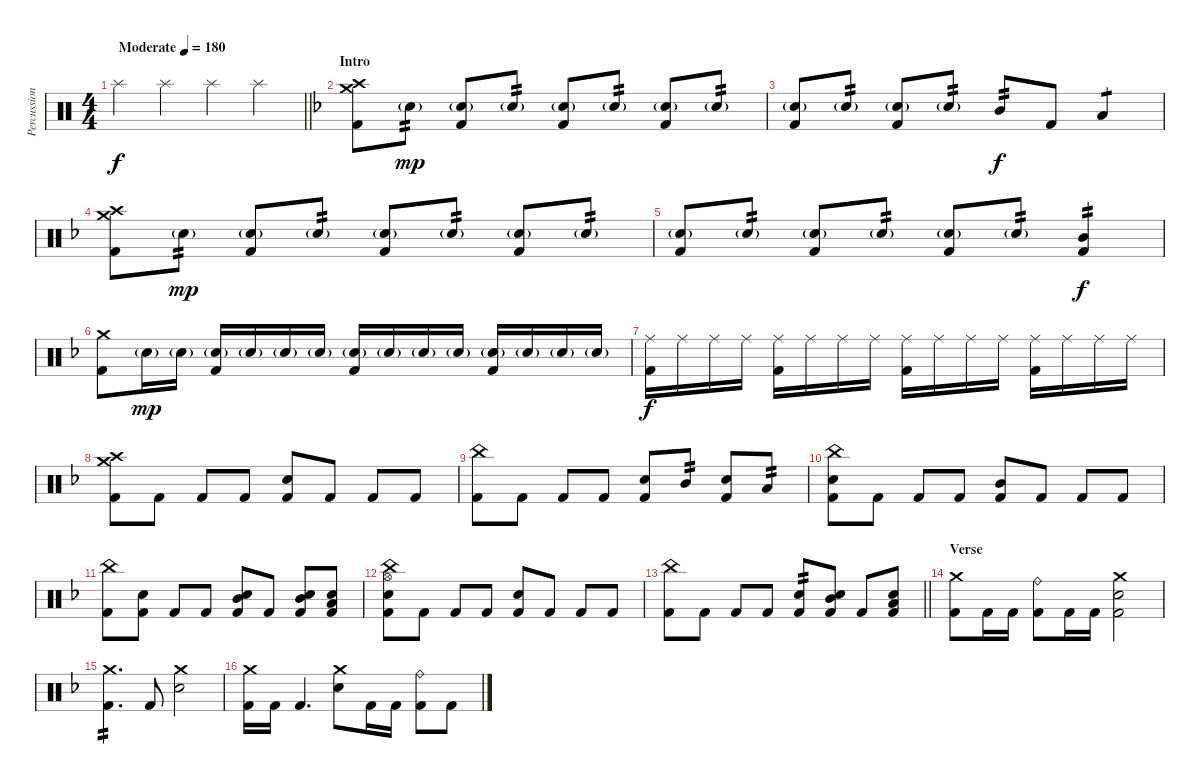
\track ("Percussion" "Percussion") {instrument percussion}
\staff {score}
\articulation defaults
\ts (4 4)
\tempo (180 "Moderate")
\clef neutral
\barLineRight lightlight
\ks c "Splash (hit)".4{dy f} "Splash (hit)".4 "Splash (hit)".4 "Splash (hit)".4
|
\section ("" "Intro")
\ks f
("Crash medium (hit)" "Crash high (hit)" "Kick (hit) 2").8 "Electric Snare (hit)"{g}.8{tp 2 dy mp} ("Electric Snare (hit)"{g} "Kick (hit) 2").8 "Electric Snare (hit)"{g}.8{tp 2} ("Electric Snare (hit)"{g} "Kick (hit) 2").8 "Electric Snare (hit)"{g}.8{tp 2} ("Electric Snare (hit)"{g} "Kick (hit) 2").8 "Electric Snare (hit)"{g}.8{tp 2} |
("Electric Snare (hit)"{g} "Kick (hit) 2").8 "Electric Snare (hit)"{g}.8{tp 2} ("Electric Snare (hit)"{g} "Kick (hit) 2").8 "Electric Snare (hit)"{g}.8{tp 2} "Mid Tom (hit)".8{tp 2 dy f} "Kick (hit) 2".8 "Low Tom (hit)".4{tp 1} |
("Crash medium (hit)" "Crash high (hit)" "Kick (hit) 2").8 "Electric Snare (hit)"{g}.8{tp 2 dy mp} ("Electric Snare (hit)"{g} "Kick (hit) 2").8 "Electric Snare (hit)"{g}.8{tp 2} ("Electric Snare (hit)"{g} "Kick (hit) 2").8 "Electric Snare (hit)"{g}.8{tp 2} ("Electric Snare (hit)"{g} "Kick (hit) 2").8 "Electric Snare (hit)"{g}.8{tp 2} |
("Electric Snare (hit)"{g} "Kick (hit) 2").8 "Electric Snare (hit)"{g}.8{tp 2} ("Electric Snare (hit)"{g} "Kick (hit) 2").8 "Electric Snare (hit)"{g}.8{tp 2} ("Electric Snare (hit)"{g} "Kick (hit) 2").8 "Electric Snare (hit)"{g}.8{tp 2} ("Mid Tom (hit)" "Kick (hit) 2").4{tp 2 dy f} |
("Crash medium (hit)" "Kick (hit) 2").8 "Electric Snare (hit)"{g}.16{dy mp} "Electric Snare (hit)"{g}.16 ("Electric Snare (hit)"{g} "Kick (hit) 2").16 "Electric Snare (hit)"{g}.16 "Electric Snare (hit)"{g}.16 "Electric Snare (hit)"{g}.16 ("Electric Snare (hit)"{g} "Kick (hit) 2").16 "Electric Snare (hit)"{g}.16 "Electric Snare (hit)"{g}.16 "Electric Snare (hit)"{g}.16 ("Electric Snare (hit)"{g} "Kick (hit) 2").16 "Electric Snare (hit)"{g}.16 "Electric Snare (hit)"{g}.16 "Electric Snare (hit)"{g}.16 |
("Ride (middle)" "Kick (hit) 2").16{dy f} "Ride (middle)".16{volume 16} "Ride (middle)".16 "Ride (middle)".16 ("Ride (middle)" "Kick (hit) 2").16 "Ride (middle)".16 "Ride (middle)".16 "Ride (middle)".16 ("Ride (middle)" "Kick (hit) 2").16 "Ride (middle)".16 "Ride (middle)".16 "Ride (middle)".16 ("Ride (middle)" "Kick (hit) 2").16 "Ride (middle)".16 "Ride (middle)".16 "Ride (middle)".16 |
("Crash medium (hit)" "Crash high (hit)" "Kick (hit) 2").8 "Kick (hit) 2".8 "Kick (hit) 2".8 "Kick (hit) 2".8 ("Electric Snare (hit)" "Kick (hit) 2").8 "Kick (hit) 2".8 "Kick (hit) 2".8 "Kick (hit) 2".8 |
("China (hit)" "Kick (hit) 2").8 "Kick (hit) 2".8 "Kick (hit) 2".8 "Kick (hit) 2".8 ("Electric Snare (hit)" "Kick (hit) 2").8 "Mid Tom (hit)".8{tp 2} ("Snare (hit)" "Kick (hit) 2").8 "Low Tom (hit)".8{tp 2} |
("China (hit)" "Electric Snare (hit)" "Kick (hit) 2").8 "Kick (hit) 2".8 "Kick (hit) 2".8 "Kick (hit) 2".8 ("Mid Tom (hit)" "Kick (hit) 2").8 "Kick (hit) 2".8 "Kick (hit) 2".8 "Kick (hit) 2".8 |
("China (hit)" "Kick (hit) 2").8 ("Electric Snare (hit)" "Kick (hit) 2").8 "Kick (hit) 2".8 "Kick (hit) 2".8 ("Mid Tom (hit)" "Electric Snare (hit)" "Kick (hit) 2").8 "Kick (hit) 2".8 ("Mid Tom (hit)" "Electric Snare (hit)" "Kick (hit) 2").8 ("Low Tom (hit)" "Electric Snare (hit)" "Kick (hit) 2").8 |
("China (hit)" "Hi-Hat (open)" "Electric Snare (hit)" "Kick (hit) 2").8 "Kick (hit) 2".8 "Kick (hit) 2".8 "Kick (hit) 2".8 ("Electric Snare (hit)" "Kick (hit) 2").8 "Kick (hit) 2".8 "Kick (hit) 2".8 "Kick (hit) 2".8 |
\barLineRight lightlight
("China (hit)" "Kick (hit) 2").8 "Kick (hit) 2".8 "Kick (hit) 2".8 "Kick (hit) 2".8 ("Electric Snare (hit)" "Kick (hit) 2").8{tp 2} ("Mid Tom (hit)" "Electric Snare (hit)" "Kick (hit) 2").8 "Kick (hit) 2".8 ("Low Tom (hit)" "Electric Snare (hit)" "Kick (hit) 2").8 |
\section ("" "Verse")
("Crash medium (hit)" "Kick (hit) 2").8 "Kick (hit) 2".16 "Kick (hit) 2".16 ("Ride (bell)" "Kick (hit) 2").8 "Kick (hit) 2".16 "Kick (hit) 2".16 ("Crash medium (hit)" "Electric Snare (hit)" "Kick (hit) 2").2 |
("Crash medium (hit)" "Kick (hit) 2").4{d tp 2} "Kick (hit) 2".8 ("Crash medium (hit)" "Electric Snare (hit)").2 |
("Crash medium (hit)" "Kick (hit) 2").16 "Kick (hit) 2".16 "Kick (hit) 2".4{d} ("Crash medium (hit)" "Electric Snare (hit)").8 "Kick (hit) 2".16 "Kick (hit) 2".16 ("Ride (bell)" "Kick (hit) 2").8 "Kick (hit) 2".8
